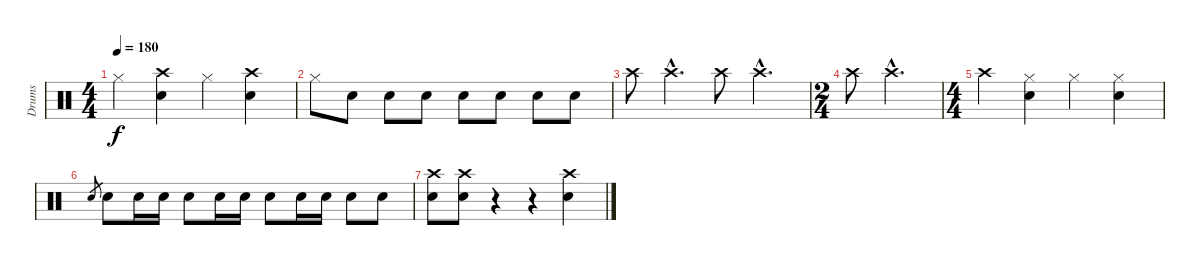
\track ("Drums" "Drums") {instrument percussion}
\staff {score}
\articulation defaults
\ts (4 4)
\tempo 180
\clef neutral
\ks c "Hi-Hat (closed)".4{dy f}
("Crash high (hit)" "Snare (hit) 2").4 "Hi-Hat (closed)".4 ("Crash high (hit)" "Snare (hit) 2").4 |
"Hi-Hat (closed)".8 "Snare (hit) 2".8 "Snare (hit) 2".8 "Snare (hit) 2".8 "Snare (hit) 2".8 "Snare (hit) 2".8 "Snare (hit) 2".8 "Snare (hit) 2".8 |
"Crash high (hit)".8 "Crash high (hit)"{hac}.4{d} "Crash high (hit)".8 "Crash high (hit)"{hac}.4{d} |
\ts (2 4)
"Crash high (hit)".8 "Crash high (hit)"{hac}.4{d} |
\ts (4 4)
"Crash high (hit)".4 ("Hi-Hat (closed)" "Snare (hit) 2").4 "Hi-Hat (closed)".4 ("Hi-Hat (closed)" "Snare (hit) 2").4 |
"Snare (hit) 2".8{gr} "Snare (hit) 2".8 "Snare (hit) 2".16 "Snare (hit) 2".16 "Snare (hit) 2".8 "Snare (hit) 2".16 "Snare (hit) 2".16 "Snare (hit) 2".8 "Snare (hit) 2".16 "Snare (hit) 2".16 "Snare (hit) 2".8 "Snare (hit) 2".8 |
("Crash high (hit)" "Snare (hit) 2").8 ("Crash high (hit)" "Snare (hit) 2").8 r.4 r.4 ("Crash high (hit)" "Snare (hit) 2").4
